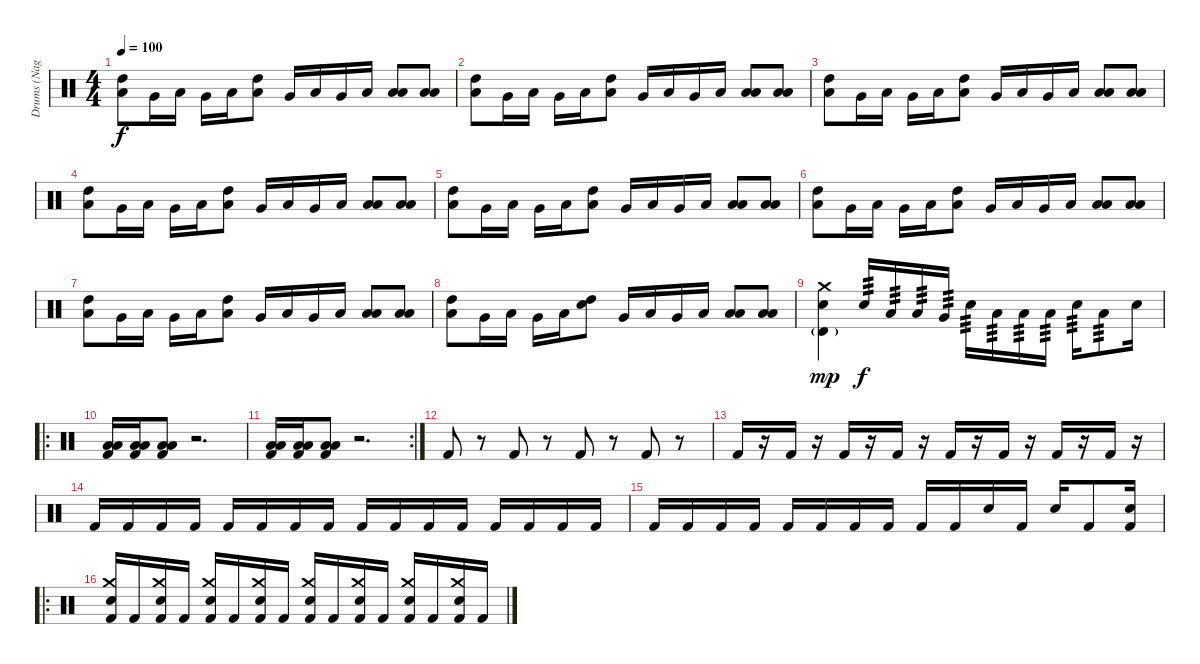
\track ("Drums (Nagy Dávid)" "Drums (Nag") {instrument percussion}
\staff {score}
\articulation defaults
\ts (4 4)
\tempo 100
\clef neutral
\ks c
("High Tom (hit)" "Low Tom (hit)").8{dy f} "Very Low Tom (hit)".16 "Low Tom (hit)".16 "Very Low Tom (hit)".16 "Low Floor Tom (hit)".16 ("Low Tom (hit)" "High Tom (hit)").8 "Very Low Tom (hit)".16 "Low Tom (hit)".16 "Very Low Tom (hit)".16 "Low Floor Tom (hit)".16 ("Low Tom (hit)" "Low Floor Tom (hit)").8 ("Low Tom (hit)" "Low Floor Tom (hit)").8 |
("High Tom (hit)" "Low Tom (hit)").8 "Very Low Tom (hit)".16 "Low Tom (hit)".16 "Very Low Tom (hit)".16 "Low Floor Tom (hit)".16 ("Low Tom (hit)" "High Tom (hit)").8 "Very Low Tom (hit)".16 "Low Tom (hit)".16 "Very Low Tom (hit)".16 "Low Floor Tom (hit)".16 ("Low Tom (hit)" "Low Floor Tom (hit)").8 ("Low Tom (hit)" "Low Floor Tom (hit)").8 |
("High Tom (hit)" "Low Tom (hit)").8 "Very Low Tom (hit)".16 "Low Tom (hit)".16 "Very Low Tom (hit)".16 "Low Floor Tom (hit)".16 ("Low Tom (hit)" "High Tom (hit)").8 "Very Low Tom (hit)".16 "Low Tom (hit)".16 "Very Low Tom (hit)".16 "Low Floor Tom (hit)".16 ("Low Tom (hit)" "Low Floor Tom (hit)").8 ("Low Tom (hit)" "Low Floor Tom (hit)").8 |
("High Tom (hit)" "Low Tom (hit)").8 "Very Low Tom (hit)".16 "Low Tom (hit)".16 "Very Low Tom (hit)".16 "Low Floor Tom (hit)".16 ("Low Tom (hit)" "High Tom (hit)").8 "Very Low Tom (hit)".16 "Low Tom (hit)".16 "Very Low Tom (hit)".16 "Low Floor Tom (hit)".16 ("Low Tom (hit)" "Low Floor Tom (hit)").8 ("Low Tom (hit)" "Low Floor Tom (hit)").8 |
("High Tom (hit)" "Low Tom (hit)").8 "Very Low Tom (hit)".16 "Low Tom (hit)".16 "Very Low Tom (hit)".16 "Low Floor Tom (hit)".16 ("Low Tom (hit)" "High Tom (hit)").8 "Very Low Tom (hit)".16 "Low Tom (hit)".16 "Very Low Tom (hit)".16 "Low Floor Tom (hit)".16 ("Low Tom (hit)" "Low Floor Tom (hit)").8 ("Low Tom (hit)" "Low Floor Tom (hit)").8 |
("High Tom (hit)" "Low Tom (hit)").8 "Very Low Tom (hit)".16 "Low Tom (hit)".16 "Very Low Tom (hit)".16 "Low Floor Tom (hit)".16 ("Low Tom (hit)" "High Tom (hit)").8 "Very Low Tom (hit)".16 "Low Tom (hit)".16 "Very Low Tom (hit)".16 "Low Floor Tom (hit)".16 ("Low Tom (hit)" "Low Floor Tom (hit)").8 ("Low Tom (hit)" "Low Floor Tom (hit)").8 |
("High Tom (hit)" "Low Tom (hit)").8 "Very Low Tom (hit)".16 "Low Tom (hit)".16 "Very Low Tom (hit)".16 "Low Floor Tom (hit)".16 ("Low Tom (hit)" "High Tom (hit)").8 "Very Low Tom (hit)".16 "Low Tom (hit)".16 "Very Low Tom (hit)".16 "Low Floor Tom (hit)".16 ("Low Tom (hit)" "Low Floor Tom (hit)").8 ("Low Tom (hit)" "Low Floor Tom (hit)").8 |
("High Tom (hit)" "Low Tom (hit)").8 "Very Low Tom (hit)".16 "Low Tom (hit)".16 "Very Low Tom (hit)".16 "Low Floor Tom (hit)".16 ("Electric Snare (hit)" "High Tom (hit)").8 "Very Low Tom (hit)".16 "Low Tom (hit)".16 "Very Low Tom (hit)".16 "Low Floor Tom (hit)".16 ("Low Tom (hit)" "Low Floor Tom (hit)").8 ("Low Tom (hit)" "Low Floor Tom (hit)").8 |
("Electric Snare (hit)" "Timbale high (hit)"{g} "Crash medium (hit)").4{dy mp} "Electric Snare (hit)".16{tp 3 dy f} "Low Tom (hit)".16{tp 3} "Low Tom (hit)".16{tp 3} "Very Low Tom (hit)".16{tp 3} "Electric Snare (hit)".16{tp 3} "Low Tom (hit)".16{tp 3} "Low Tom (hit)".16{tp 3} "Low Floor Tom (hit)".16{tp 3} "Electric Snare (hit)".16{tp 3} "Low Tom (hit)".8{tp 3} "Electric Snare (hit)".16 |
\ro
("Kick (hit) 2" "Low Tom (hit)" "Low Floor Tom (hit)").16 ("Kick (hit) 2" "Low Tom (hit)" "Low Floor Tom (hit)").16 ("Kick (hit) 2" "Low Tom (hit)" "Low Floor Tom (hit)").8 r.2{d} |
\rc 2
("Kick (hit) 2" "Low Tom (hit)" "Low Floor Tom (hit)").16 ("Kick (hit) 2" "Low Tom (hit)" "Low Floor Tom (hit)").16 ("Kick (hit) 2" "Low Tom (hit)" "Low Floor Tom (hit)").8 r.2{d} |
"Kick (hit) 2".8 r.8 "Kick (hit) 2".8 r.8 "Kick (hit) 2".8 r.8 "Kick (hit) 2".8 r.8 |
"Kick (hit) 2".16 r.16 "Kick (hit) 2".16 r.16 "Kick (hit) 2".16 r.16 "Kick (hit) 2".16 r.16 "Kick (hit) 2".16 r.16 "Kick (hit) 2".16 r.16 "Kick (hit) 2".16 r.16 "Kick (hit) 2".16 r.16 |
"Kick (hit) 2".16 "Kick (hit) 2".16 "Kick (hit) 2".16 "Kick (hit) 2".16 "Kick (hit) 2".16 "Kick (hit) 2".16 "Kick (hit) 2".16 "Kick (hit) 2".16 "Kick (hit) 2".16 "Kick (hit) 2".16 "Kick (hit) 2".16 "Kick (hit) 2".16 "Kick (hit) 2".16 "Kick (hit) 2".16 "Kick (hit) 2".16 "Kick (hit) 2".16 |
"Kick (hit) 2".16 "Kick (hit) 2".16 "Kick (hit) 2".16 "Kick (hit) 2".16 "Kick (hit) 2".16 "Kick (hit) 2".16 "Kick (hit) 2".16 "Kick (hit) 2".16 "Kick (hit) 2".16 "Kick (hit) 2".16 "Electric Snare (hit)".16 "Kick (hit) 2".16 "Electric Snare (hit)".16 "Kick (hit) 2".8 ("Kick (hit) 2" "Electric Snare (hit)").16 |
\ro
("Kick (hit) 2" "Electric Snare (hit)" "Crash medium (hit)").16 "Kick (hit) 2".16 ("Kick (hit) 2" "Electric Snare (hit)" "Crash medium (hit)").16 "Kick (hit) 2".16 ("Kick (hit) 2" "Electric Snare (hit)" "Crash medium (hit)").16 "Kick (hit) 2".16 ("Kick (hit) 2" "Electric Snare (hit)" "Crash medium (hit)").16 "Kick (hit) 2".16 ("Kick (hit) 2" "Electric Snare (hit)" "Crash medium (hit)").16 "Kick (hit) 2".16 ("Kick (hit) 2" "Electric Snare (hit)" "Crash medium (hit)").16 "Kick (hit) 2".16 ("Kick (hit) 2" "Electric Snare (hit)" "Crash medium (hit)").16 "Kick (hit) 2".16 ("Kick (hit) 2" "Electric Snare (hit)" "Crash medium (hit)").16 "Kick (hit) 2".16
